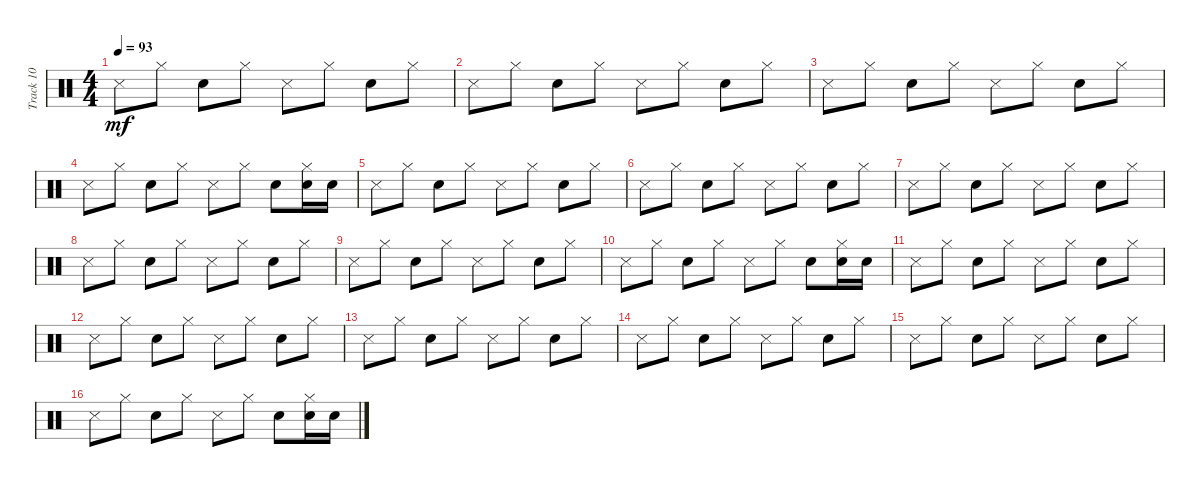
\track ("Track 10" "Track 10") {instrument percussion}
\staff {score}
\articulation defaults
\ts (4 4)
\tempo 93
\clef neutral
\ks c "Metronome (hit)".8{dy mf} "Hi-Hat (closed)".8 "Electric Snare (hit)".8 "Hi-Hat (closed)".8 "Metronome (hit)".8 "Hi-Hat (closed)".8 "Electric Snare (hit)".8 "Hi-Hat (closed)".8
|
"Metronome (hit)".8 "Hi-Hat (closed)".8 "Electric Snare (hit)".8 "Hi-Hat (closed)".8 "Metronome (hit)".8 "Hi-Hat (closed)".8 "Electric Snare (hit)".8 "Hi-Hat (closed)".8 |
"Metronome (hit)".8 "Hi-Hat (closed)".8 "Electric Snare (hit)".8 "Hi-Hat (closed)".8 "Metronome (hit)".8 "Hi-Hat (closed)".8 "Electric Snare (hit)".8 "Hi-Hat (closed)".8 |
"Metronome (hit)".8 "Hi-Hat (closed)".8 "Electric Snare (hit)".8 "Hi-Hat (closed)".8 "Metronome (hit)".8 "Hi-Hat (closed)".8 "Electric Snare (hit)".8 ("Hi-Hat (closed)" "Snare (hit)").16 "Snare (hit)".16 |
"Metronome (hit)".8 "Hi-Hat (closed)".8 "Electric Snare (hit)".8 "Hi-Hat (closed)".8 "Metronome (hit)".8 "Hi-Hat (closed)".8 "Electric Snare (hit)".8 "Hi-Hat (closed)".8 |
"Metronome (hit)".8 "Hi-Hat (closed)".8 "Electric Snare (hit)".8 "Hi-Hat (closed)".8 "Metronome (hit)".8 "Hi-Hat (closed)".8 "Electric Snare (hit)".8 "Hi-Hat (closed)".8 |
"Metronome (hit)".8 "Hi-Hat (closed)".8 "Electric Snare (hit)".8 "Hi-Hat (closed)".8 "Metronome (hit)".8 "Hi-Hat (closed)".8 "Electric Snare (hit)".8 "Hi-Hat (closed)".8 |
"Metronome (hit)".8 "Hi-Hat (closed)".8 "Electric Snare (hit)".8 "Hi-Hat (closed)".8 "Metronome (hit)".8 "Hi-Hat (closed)".8 "Electric Snare (hit)".8 "Hi-Hat (closed)".8 |
"Metronome (hit)".8 "Hi-Hat (closed)".8 "Electric Snare (hit)".8 "Hi-Hat (closed)".8 "Metronome (hit)".8 "Hi-Hat (closed)".8 "Electric Snare (hit)".8 "Hi-Hat (closed)".8 |
"Metronome (hit)".8 "Hi-Hat (closed)".8 "Electric Snare (hit)".8 "Hi-Hat (closed)".8 "Metronome (hit)".8 "Hi-Hat (closed)".8 "Electric Snare (hit)".8 ("Snare (hit)" "Hi-Hat (closed)").16 "Snare (hit)".16 |
"Metronome (hit)".8 "Hi-Hat (closed)".8 "Electric Snare (hit)".8 "Hi-Hat (closed)".8 "Metronome (hit)".8 "Hi-Hat (closed)".8 "Electric Snare (hit)".8 "Hi-Hat (closed)".8 |
"Metronome (hit)".8 "Hi-Hat (closed)".8 "Electric Snare (hit)".8 "Hi-Hat (closed)".8 "Metronome (hit)".8 "Hi-Hat (closed)".8 "Electric Snare (hit)".8 "Hi-Hat (closed)".8 |
"Metronome (hit)".8 "Hi-Hat (closed)".8 "Electric Snare (hit)".8 "Hi-Hat (closed)".8 "Metronome (hit)".8 "Hi-Hat (closed)".8 "Electric Snare (hit)".8 "Hi-Hat (closed)".8 |
"Metronome (hit)".8 "Hi-Hat (closed)".8 "Electric Snare (hit)".8 "Hi-Hat (closed)".8 "Metronome (hit)".8 "Hi-Hat (closed)".8 "Electric Snare (hit)".8 "Hi-Hat (closed)".8 |
"Metronome (hit)".8 "Hi-Hat (closed)".8 "Electric Snare (hit)".8 "Hi-Hat (closed)".8 "Metronome (hit)".8 "Hi-Hat (closed)".8 "Electric Snare (hit)".8 "Hi-Hat (closed)".8 |
"Metronome (hit)".8 "Hi-Hat (closed)".8 "Electric Snare (hit)".8 "Hi-Hat (closed)".8 "Metronome (hit)".8 "Hi-Hat (closed)".8 "Electric Snare (hit)".8 ("Snare (hit)" "Hi-Hat (closed)").16 "Snare (hit)".16
